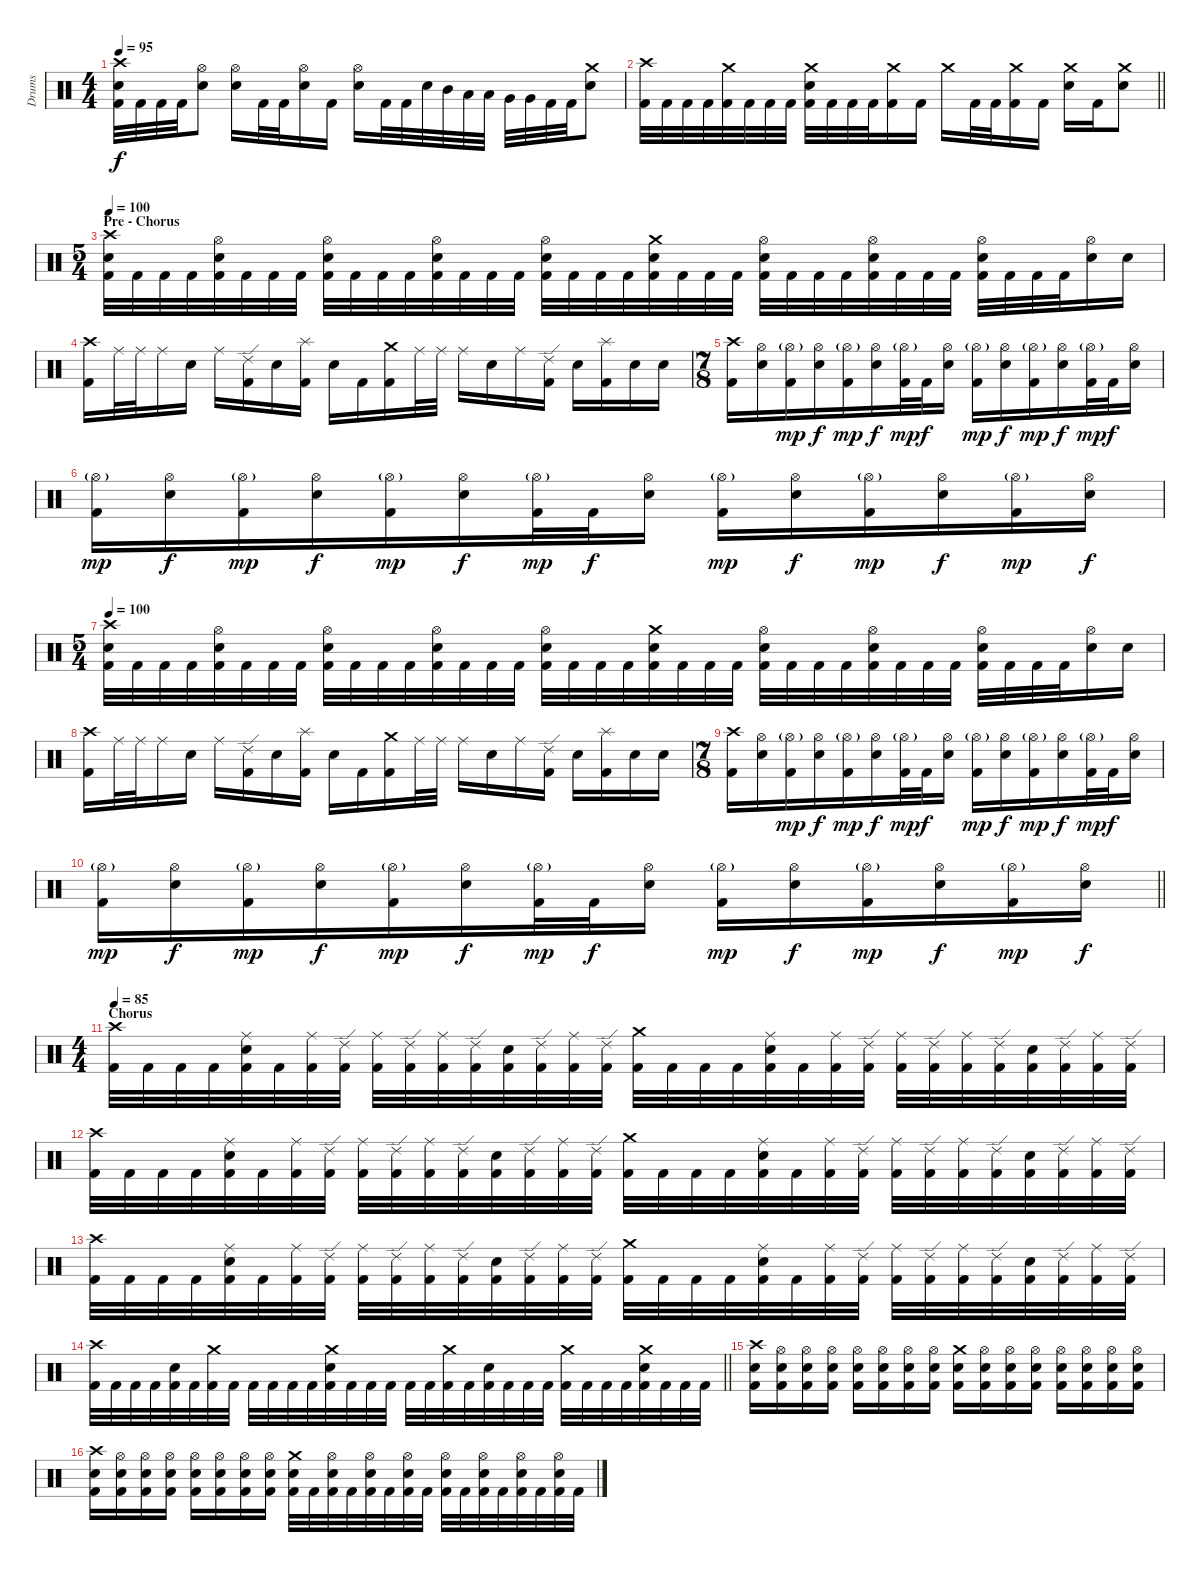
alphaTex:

\track ("Drums" "Drums") {instrument percussion}
\staff {score}
\articulation defaults
\ts (4 4)
\tempo 95
\clef neutral
\ks c
("Crash high (hit)" "Electric Snare (hit)" "Kick (hit) 2").32{dy f} "Kick (hit) 2".32 "Kick (hit) 2".32 "Kick (hit) 2".32 ("Hi-Hat (open)" "Electric Snare (hit)").8 ("Hi-Hat (open)" "Electric Snare (hit)").16 "Kick (hit) 2".32 "Kick (hit) 2".32 ("Hi-Hat (open)" "Electric Snare (hit)").16 "Kick (hit) 2".16 ("Hi-Hat (open)" "Electric Snare (hit)").16 "Kick (hit) 2".32 "Kick (hit) 2".32 "Electric Snare (hit)".32 "Mid Tom (hit)".32 "Low Tom (hit)".32 "Low Tom (hit)".32 "Very Low Tom (hit)".32 "Very Low Tom (hit)".32 "Kick (hit) 2".32 "Kick (hit) 2".32 ("Crash medium (hit)" "Electric Snare (hit)").8 |
\barLineRight lightlight
("Crash high (hit)" "Kick (hit) 2").32 "Kick (hit) 2".32 "Kick (hit) 2".32 "Kick (hit) 2".32 ("Crash medium (hit)" "Kick (hit) 2").32 "Kick (hit) 2".32 "Kick (hit) 2".32 "Kick (hit) 2".32 ("Crash medium (hit)" "Electric Snare (hit)" "Kick (hit) 2").32 "Kick (hit) 2".32 "Kick (hit) 2".32 "Kick (hit) 2".32 ("Crash medium (hit)" "Kick (hit) 2").16 "Kick (hit) 2".16 "Crash medium (hit)".16 "Kick (hit) 2".32 "Kick (hit) 2".32 ("Crash medium (hit)" "Kick (hit) 2").16 "Kick (hit) 2".16 ("Crash medium (hit)" "Electric Snare (hit)").16 "Kick (hit) 2".16 ("Crash medium (hit)" "Electric Snare (hit)").8 |
\ts (5 4)
\section ("" "Pre - Chorus")
\tempo 100
("Crash high (hit)" "Electric Snare (hit)" "Kick (hit) 2").32 "Kick (hit) 2".32 "Kick (hit) 2".32 "Kick (hit) 2".32 ("Hi-Hat (open)" "Electric Snare (hit)" "Kick (hit) 2").32 "Kick (hit) 2".32 "Kick (hit) 2".32 "Kick (hit) 2".32 ("Hi-Hat (open)" "Electric Snare (hit)" "Kick (hit) 2").32 "Kick (hit) 2".32 "Kick (hit) 2".32 "Kick (hit) 2".32 ("Hi-Hat (open)" "Electric Snare (hit)" "Kick (hit) 2").32 "Kick (hit) 2".32 "Kick (hit) 2".32 "Kick (hit) 2".32 ("Hi-Hat (open)" "Electric Snare (hit)" "Kick (hit) 2").32 "Kick (hit) 2".32 "Kick (hit) 2".32 "Kick (hit) 2".32 ("Crash medium (hit)" "Electric Snare (hit)" "Kick (hit) 2").32 "Kick (hit) 2".32 "Kick (hit) 2".32 "Kick (hit) 2".32 ("Hi-Hat (open)" "Electric Snare (hit)" "Kick (hit) 2").32 "Kick (hit) 2".32 "Kick (hit) 2".32 "Kick (hit) 2".32 ("Hi-Hat (open)" "Electric Snare (hit)" "Kick (hit) 2").32 "Kick (hit) 2".32 "Kick (hit) 2".32 "Kick (hit) 2".32 ("Hi-Hat (open)" "Electric Snare (hit)" "Kick (hit) 2").32 "Kick (hit) 2".32 "Kick (hit) 2".32 "Kick (hit) 2".32 ("Hi-Hat (open)" "Electric Snare (hit)").16 "Electric Snare (hit)".16 |
("Crash high (hit)" "Kick (hit) 2").16 "Ride (middle)".32 "Ride (middle)".32 "Ride (middle)".16 "Electric Snare (hit)".16 "Ride (middle)".16 ("Ride (edge) 2" "Kick (hit) 2").16 "Electric Snare (hit)".16 ("Splash (hit)" "Kick (hit) 2").16 "Electric Snare (hit)".16 "Kick (hit) 2".16 ("Crash medium (hit)" "Kick (hit) 2").16 "Ride (middle)".32 "Ride (middle)".32 "Ride (middle)".16 "Electric Snare (hit)".16 "Ride (middle)".16 ("Ride (edge) 2" "Kick (hit) 2").16 "Electric Snare (hit)".16 ("Splash (hit)" "Kick (hit) 2").16 "Electric Snare (hit)".16 "Electric Snare (hit)".16 |
\ts (7 8)
("Crash high (hit)" "Kick (hit) 2").16 ("Hi-Hat (open)" "Electric Snare (hit)").16 ("Hi-Hat (open)"{g} "Kick (hit) 2").16{dy mp} ("Hi-Hat (open)" "Electric Snare (hit)").16{dy f} ("Hi-Hat (open)"{g} "Kick (hit) 2").16{dy mp} ("Hi-Hat (open)" "Electric Snare (hit)").16{dy f} ("Hi-Hat (open)"{g} "Kick (hit) 2").32{dy mp} "Kick (hit) 2".32{dy f} ("Hi-Hat (open)" "Electric Snare (hit)").16 ("Hi-Hat (open)"{g} "Kick (hit) 2").16{dy mp} ("Hi-Hat (open)" "Electric Snare (hit)").16{dy f} ("Hi-Hat (open)"{g} "Kick (hit) 2").16{dy mp} ("Hi-Hat (open)" "Electric Snare (hit)").16{dy f} ("Hi-Hat (open)"{g} "Kick (hit) 2").32{dy mp} "Kick (hit) 2".32{dy f} ("Hi-Hat (open)" "Electric Snare (hit)").16 |
("Hi-Hat (open)"{g} "Kick (hit) 2").16{dy mp} ("Hi-Hat (open)" "Electric Snare (hit)").16{dy f} ("Hi-Hat (open)"{g} "Kick (hit) 2").16{dy mp} ("Hi-Hat (open)" "Electric Snare (hit)").16{dy f} ("Hi-Hat (open)"{g} "Kick (hit) 2").16{dy mp} ("Hi-Hat (open)" "Electric Snare (hit)").16{dy f} ("Hi-Hat (open)"{g} "Kick (hit) 2").32{dy mp} "Kick (hit) 2".32{dy f} ("Hi-Hat (open)" "Electric Snare (hit)").16 ("Hi-Hat (open)"{g} "Kick (hit) 2").16{dy mp} ("Hi-Hat (open)" "Electric Snare (hit)").16{dy f} ("Hi-Hat (open)"{g} "Kick (hit) 2").16{dy mp} ("Hi-Hat (open)" "Electric Snare (hit)").16{dy f} ("Hi-Hat (open)"{g} "Kick (hit) 2").16{dy mp} ("Hi-Hat (open)" "Electric Snare (hit)").16{dy f} |
\ts (5 4)
\tempo 100
("Crash high (hit)" "Electric Snare (hit)" "Kick (hit) 2").32 "Kick (hit) 2".32 "Kick (hit) 2".32 "Kick (hit) 2".32 ("Hi-Hat (open)" "Electric Snare (hit)" "Kick (hit) 2").32 "Kick (hit) 2".32 "Kick (hit) 2".32 "Kick (hit) 2".32 ("Hi-Hat (open)" "Electric Snare (hit)" "Kick (hit) 2").32 "Kick (hit) 2".32 "Kick (hit) 2".32 "Kick (hit) 2".32 ("Hi-Hat (open)" "Electric Snare (hit)" "Kick (hit) 2").32 "Kick (hit) 2".32 "Kick (hit) 2".32 "Kick (hit) 2".32 ("Hi-Hat (open)" "Electric Snare (hit)" "Kick (hit) 2").32 "Kick (hit) 2".32 "Kick (hit) 2".32 "Kick (hit) 2".32 ("Crash medium (hit)" "Electric Snare (hit)" "Kick (hit) 2").32 "Kick (hit) 2".32 "Kick (hit) 2".32 "Kick (hit) 2".32 ("Hi-Hat (open)" "Electric Snare (hit)" "Kick (hit) 2").32 "Kick (hit) 2".32 "Kick (hit) 2".32 "Kick (hit) 2".32 ("Hi-Hat (open)" "Electric Snare (hit)" "Kick (hit) 2").32 "Kick (hit) 2".32 "Kick (hit) 2".32 "Kick (hit) 2".32 ("Hi-Hat (open)" "Electric Snare (hit)" "Kick (hit) 2").32 "Kick (hit) 2".32 "Kick (hit) 2".32 "Kick (hit) 2".32 ("Hi-Hat (open)" "Electric Snare (hit)").16 "Electric Snare (hit)".16 |
("Crash high (hit)" "Kick (hit) 2").16 "Ride (middle)".32 "Ride (middle)".32 "Ride (middle)".16 "Electric Snare (hit)".16 "Ride (middle)".16 ("Ride (edge) 2" "Kick (hit) 2").16 "Electric Snare (hit)".16 ("Splash (hit)" "Kick (hit) 2").16 "Electric Snare (hit)".16 "Kick (hit) 2".16 ("Crash medium (hit)" "Kick (hit) 2").16 "Ride (middle)".32 "Ride (middle)".32 "Ride (middle)".16 "Electric Snare (hit)".16 "Ride (middle)".16 ("Ride (edge) 2" "Kick (hit) 2").16 "Electric Snare (hit)".16 ("Splash (hit)" "Kick (hit) 2").16 "Electric Snare (hit)".16 "Electric Snare (hit)".16 |
\ts (7 8)
("Crash high (hit)" "Kick (hit) 2").16 ("Hi-Hat (open)" "Electric Snare (hit)").16 ("Hi-Hat (open)"{g} "Kick (hit) 2").16{dy mp} ("Hi-Hat (open)" "Electric Snare (hit)").16{dy f} ("Hi-Hat (open)"{g} "Kick (hit) 2").16{dy mp} ("Hi-Hat (open)" "Electric Snare (hit)").16{dy f} ("Hi-Hat (open)"{g} "Kick (hit) 2").32{dy mp} "Kick (hit) 2".32{dy f} ("Hi-Hat (open)" "Electric Snare (hit)").16 ("Hi-Hat (open)"{g} "Kick (hit) 2").16{dy mp} ("Hi-Hat (open)" "Electric Snare (hit)").16{dy f} ("Hi-Hat (open)"{g} "Kick (hit) 2").16{dy mp} ("Hi-Hat (open)" "Electric Snare (hit)").16{dy f} ("Hi-Hat (open)"{g} "Kick (hit) 2").32{dy mp} "Kick (hit) 2".32{dy f} ("Hi-Hat (open)" "Electric Snare (hit)").16 |
\barLineRight lightlight
("Hi-Hat (open)"{g} "Kick (hit) 2").16{dy mp} ("Hi-Hat (open)" "Electric Snare (hit)").16{dy f} ("Hi-Hat (open)"{g} "Kick (hit) 2").16{dy mp} ("Hi-Hat (open)" "Electric Snare (hit)").16{dy f} ("Hi-Hat (open)"{g} "Kick (hit) 2").16{dy mp} ("Hi-Hat (open)" "Electric Snare (hit)").16{dy f} ("Hi-Hat (open)"{g} "Kick (hit) 2").32{dy mp} "Kick (hit) 2".32{dy f} ("Hi-Hat (open)" "Electric Snare (hit)").16 ("Hi-Hat (open)"{g} "Kick (hit) 2").16{dy mp} ("Hi-Hat (open)" "Electric Snare (hit)").16{dy f} ("Hi-Hat (open)"{g} "Kick (hit) 2").16{dy mp} ("Hi-Hat (open)" "Electric Snare (hit)").16{dy f} ("Hi-Hat (open)"{g} "Kick (hit) 2").16{dy mp} ("Hi-Hat (open)" "Electric Snare (hit)").16{dy f} |
\ts (4 4)
\section ("" "Chorus")
\tempo 85
("Crash high (hit)" "Kick (hit) 2").32 "Kick (hit) 2".32 "Kick (hit) 2".32 "Kick (hit) 2".32 ("Ride (middle)" "Electric Snare (hit)" "Kick (hit) 2").32 "Kick (hit) 2".32 ("Ride (middle)" "Kick (hit) 2").32 ("Ride (edge) 2" "Kick (hit) 2").32 ("Ride (middle)" "Kick (hit) 2").32 ("Ride (edge) 2" "Kick (hit) 2").32 ("Ride (middle)" "Kick (hit) 2").32 ("Ride (edge) 2" "Kick (hit) 2").32 ("Electric Snare (hit)" "Kick (hit) 2").32 ("Ride (edge) 2" "Kick (hit) 2").32 ("Ride (middle)" "Kick (hit) 2").32 ("Ride (edge) 2" "Kick (hit) 2").32 ("Crash medium (hit)" "Kick (hit) 2").32 "Kick (hit) 2".32 "Kick (hit) 2".32 "Kick (hit) 2".32 ("Ride (middle)" "Electric Snare (hit)" "Kick (hit) 2").32 "Kick (hit) 2".32 ("Ride (middle)" "Kick (hit) 2").32 ("Ride (edge) 2" "Kick (hit) 2").32 ("Ride (middle)" "Kick (hit) 2").32 ("Ride (edge) 2" "Kick (hit) 2").32 ("Ride (middle)" "Kick (hit) 2").32 ("Ride (edge) 2" "Kick (hit) 2").32 ("Electric Snare (hit)" "Kick (hit) 2").32 ("Ride (edge) 2" "Kick (hit) 2").32 ("Ride (middle)" "Kick (hit) 2").32 ("Ride (edge) 2" "Kick (hit) 2").32 |
("Crash high (hit)" "Kick (hit) 2").32 "Kick (hit) 2".32 "Kick (hit) 2".32 "Kick (hit) 2".32 ("Ride (middle)" "Electric Snare (hit)" "Kick (hit) 2").32 "Kick (hit) 2".32 ("Ride (middle)" "Kick (hit) 2").32 ("Ride (edge) 2" "Kick (hit) 2").32 ("Ride (middle)" "Kick (hit) 2").32 ("Ride (edge) 2" "Kick (hit) 2").32 ("Ride (middle)" "Kick (hit) 2").32 ("Ride (edge) 2" "Kick (hit) 2").32 ("Electric Snare (hit)" "Kick (hit) 2").32 ("Ride (edge) 2" "Kick (hit) 2").32 ("Ride (middle)" "Kick (hit) 2").32 ("Ride (edge) 2" "Kick (hit) 2").32 ("Crash medium (hit)" "Kick (hit) 2").32 "Kick (hit) 2".32 "Kick (hit) 2".32 "Kick (hit) 2".32 ("Ride (middle)" "Electric Snare (hit)" "Kick (hit) 2").32 "Kick (hit) 2".32 ("Ride (middle)" "Kick (hit) 2").32 ("Ride (edge) 2" "Kick (hit) 2").32 ("Ride (middle)" "Kick (hit) 2").32 ("Ride (edge) 2" "Kick (hit) 2").32 ("Ride (middle)" "Kick (hit) 2").32 ("Ride (edge) 2" "Kick (hit) 2").32 ("Electric Snare (hit)" "Kick (hit) 2").32 ("Ride (edge) 2" "Kick (hit) 2").32 ("Ride (middle)" "Kick (hit) 2").32 ("Ride (edge) 2" "Kick (hit) 2").32 |
("Crash high (hit)" "Kick (hit) 2").32 "Kick (hit) 2".32 "Kick (hit) 2".32 "Kick (hit) 2".32 ("Ride (middle)" "Electric Snare (hit)" "Kick (hit) 2").32 "Kick (hit) 2".32 ("Ride (middle)" "Kick (hit) 2").32 ("Ride (edge) 2" "Kick (hit) 2").32 ("Ride (middle)" "Kick (hit) 2").32 ("Ride (edge) 2" "Kick (hit) 2").32 ("Ride (middle)" "Kick (hit) 2").32 ("Ride (edge) 2" "Kick (hit) 2").32 ("Electric Snare (hit)" "Kick (hit) 2").32 ("Ride (edge) 2" "Kick (hit) 2").32 ("Ride (middle)" "Kick (hit) 2").32 ("Ride (edge) 2" "Kick (hit) 2").32 ("Crash medium (hit)" "Kick (hit) 2").32 "Kick (hit) 2".32 "Kick (hit) 2".32 "Kick (hit) 2".32 ("Ride (middle)" "Electric Snare (hit)" "Kick (hit) 2").32 "Kick (hit) 2".32 ("Ride (middle)" "Kick (hit) 2").32 ("Ride (edge) 2" "Kick (hit) 2").32 ("Ride (middle)" "Kick (hit) 2").32 ("Ride (edge) 2" "Kick (hit) 2").32 ("Ride (middle)" "Kick (hit) 2").32 ("Ride (edge) 2" "Kick (hit) 2").32 ("Electric Snare (hit)" "Kick (hit) 2").32 ("Ride (edge) 2" "Kick (hit) 2").32 ("Ride (middle)" "Kick (hit) 2").32 ("Ride (edge) 2" "Kick (hit) 2").32 |
\barLineRight lightlight
("Crash high (hit)" "Kick (hit) 2").32 "Kick (hit) 2".32 "Kick (hit) 2".32 "Kick (hit) 2".32 ("Electric Snare (hit)" "Kick (hit) 2").32 "Kick (hit) 2".32 ("Crash medium (hit)" "Kick (hit) 2").32 "Kick (hit) 2".32 "Kick (hit) 2".32 "Kick (hit) 2".32 "Kick (hit) 2".32 "Kick (hit) 2".32 ("Crash medium (hit)" "Electric Snare (hit)" "Kick (hit) 2").32 "Kick (hit) 2".32 "Kick (hit) 2".32 "Kick (hit) 2".32 "Kick (hit) 2".32 "Kick (hit) 2".32 ("Crash medium (hit)" "Kick (hit) 2").32 "Kick (hit) 2".32 ("Electric Snare (hit)" "Kick (hit) 2").32 "Kick (hit) 2".32 "Kick (hit) 2".32 "Kick (hit) 2".32 ("Crash medium (hit)" "Kick (hit) 2").32 "Kick (hit) 2".32 "Kick (hit) 2".32 "Kick (hit) 2".32 ("Crash medium (hit)" "Electric Snare (hit)" "Kick (hit) 2").32 "Kick (hit) 2".32 "Kick (hit) 2".32 "Kick (hit) 2".32 |
("Crash high (hit)" "Electric Snare (hit)" "Kick (hit) 2").16 ("Hi-Hat (open)" "Electric Snare (hit)" "Kick (hit) 2").16 ("Hi-Hat (open)" "Electric Snare (hit)" "Kick (hit) 2").16 ("Hi-Hat (open)" "Electric Snare (hit)" "Kick (hit) 2").16 ("Hi-Hat (open)" "Electric Snare (hit)" "Kick (hit) 2").16 ("Hi-Hat (open)" "Electric Snare (hit)" "Kick (hit) 2").16 ("Hi-Hat (open)" "Electric Snare (hit)" "Kick (hit) 2").16 ("Hi-Hat (open)" "Electric Snare (hit)" "Kick (hit) 2").16 ("Crash medium (hit)" "Electric Snare (hit)" "Kick (hit) 2").16 ("Hi-Hat (open)" "Electric Snare (hit)" "Kick (hit) 2").16 ("Hi-Hat (open)" "Electric Snare (hit)" "Kick (hit) 2").16 ("Hi-Hat (open)" "Electric Snare (hit)" "Kick (hit) 2").16 ("Hi-Hat (open)" "Electric Snare (hit)" "Kick (hit) 2").16 ("Hi-Hat (open)" "Electric Snare (hit)" "Kick (hit) 2").16 ("Hi-Hat (open)" "Electric Snare (hit)" "Kick (hit) 2").16 ("Hi-Hat (open)" "Electric Snare (hit)" "Kick (hit) 2").16 |
("Crash high (hit)" "Electric Snare (hit)" "Kick (hit) 2").16 ("Hi-Hat (open)" "Electric Snare (hit)" "Kick (hit) 2").16 ("Hi-Hat (open)" "Electric Snare (hit)" "Kick (hit) 2").16 ("Hi-Hat (open)" "Electric Snare (hit)" "Kick (hit) 2").16 ("Hi-Hat (open)" "Electric Snare (hit)" "Kick (hit) 2").16 ("Hi-Hat (open)" "Electric Snare (hit)" "Kick (hit) 2").16 ("Hi-Hat (open)" "Electric Snare (hit)" "Kick (hit) 2").16 ("Hi-Hat (open)" "Electric Snare (hit)" "Kick (hit) 2").16 ("Crash medium (hit)" "Electric Snare (hit)" "Kick (hit) 2").32 "Kick (hit) 2".32 ("Hi-Hat (open)" "Electric Snare (hit)" "Kick (hit) 2").32 "Kick (hit) 2".32 ("Hi-Hat (open)" "Electric Snare (hit)" "Kick (hit) 2").32 "Kick (hit) 2".32 ("Hi-Hat (open)" "Electric Snare (hit)" "Kick (hit) 2").32 "Kick (hit) 2".32 ("Hi-Hat (open)" "Electric Snare (hit)" "Kick (hit) 2").32 "Kick (hit) 2".32 ("Hi-Hat (open)" "Electric Snare (hit)" "Kick (hit) 2").32 "Kick (hit) 2".32 ("Hi-Hat (open)" "Electric Snare (hit)" "Kick (hit) 2").32 "Kick (hit) 2".32 ("Hi-Hat (open)" "Electric Snare (hit)" "Kick (hit) 2").32 "Kick (hit) 2".32
